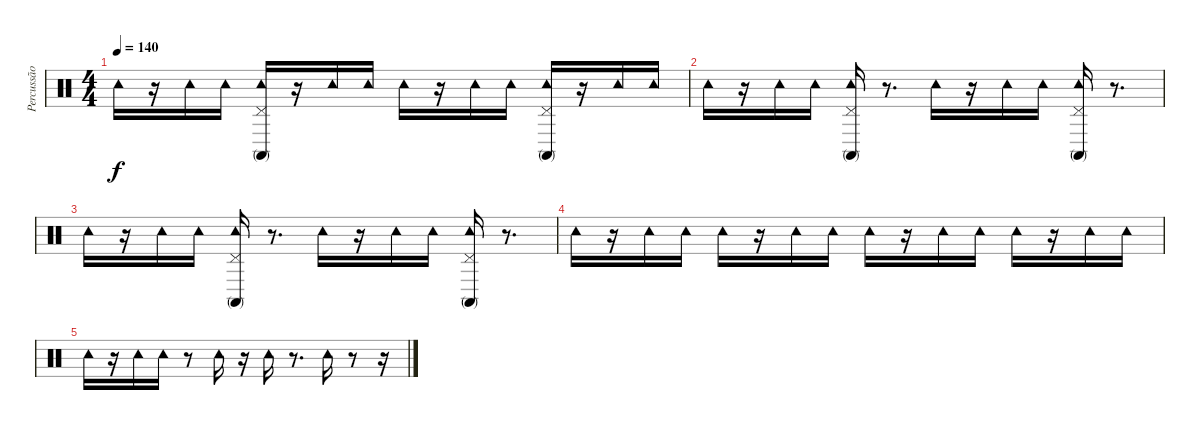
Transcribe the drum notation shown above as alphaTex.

\track ("Percussão" "Percussão") {instrument percussion}
\staff {score}
\articulation defaults
\ts (4 4)
\tempo 140
\clef neutral
\ks c "Tambourine (hit)".16{dy f}
r.16 "Tambourine (hit)".16 "Tambourine (hit)".16 ("Tambourine (hit)" "Pedal Hi-Hat (hit)" "Conga high (mute)").16 r.16 "Tambourine (hit)".16 "Tambourine (hit)".16 "Tambourine (hit)".16 r.16 "Tambourine (hit)".16 "Tambourine (hit)".16 ("Tambourine (hit)" "Pedal Hi-Hat (hit)" "Conga high (mute)").16 r.16 "Tambourine (hit)".16 "Tambourine (hit)".16 |
"Tambourine (hit)".16 r.16 "Tambourine (hit)".16 "Tambourine (hit)".16 ("Conga high (mute)" "Tambourine (hit)" "Pedal Hi-Hat (hit)").16 r.8{d} "Tambourine (hit)".16 r.16 "Tambourine (hit)".16 "Tambourine (hit)".16 ("Conga high (mute)" "Tambourine (hit)" "Pedal Hi-Hat (hit)").16 r.8{d} |
"Tambourine (hit)".16 r.16 "Tambourine (hit)".16 "Tambourine (hit)".16 ("Conga high (mute)" "Pedal Hi-Hat (hit)" "Tambourine (hit)").16 r.8{d} "Tambourine (hit)".16 r.16 "Tambourine (hit)".16 "Tambourine (hit)".16 ("Conga high (mute)" "Pedal Hi-Hat (hit)" "Tambourine (hit)").16 r.8{d} |
"Tambourine (hit)".16 r.16 "Tambourine (hit)".16 "Tambourine (hit)".16 "Tambourine (hit)".16 r.16 "Tambourine (hit)".16 "Tambourine (hit)".16 "Tambourine (hit)".16 r.16 "Tambourine (hit)".16 "Tambourine (hit)".16 "Tambourine (hit)".16 r.16 "Tambourine (hit)".16 "Tambourine (hit)".16 |
"Tambourine (hit)".16 r.16 "Tambourine (hit)".16 "Tambourine (hit)".16 r.8 "Tambourine (hit)".16 r.16 "Tambourine (hit)".16 r.8{d} "Tambourine (hit)".16 r.8 r.16
